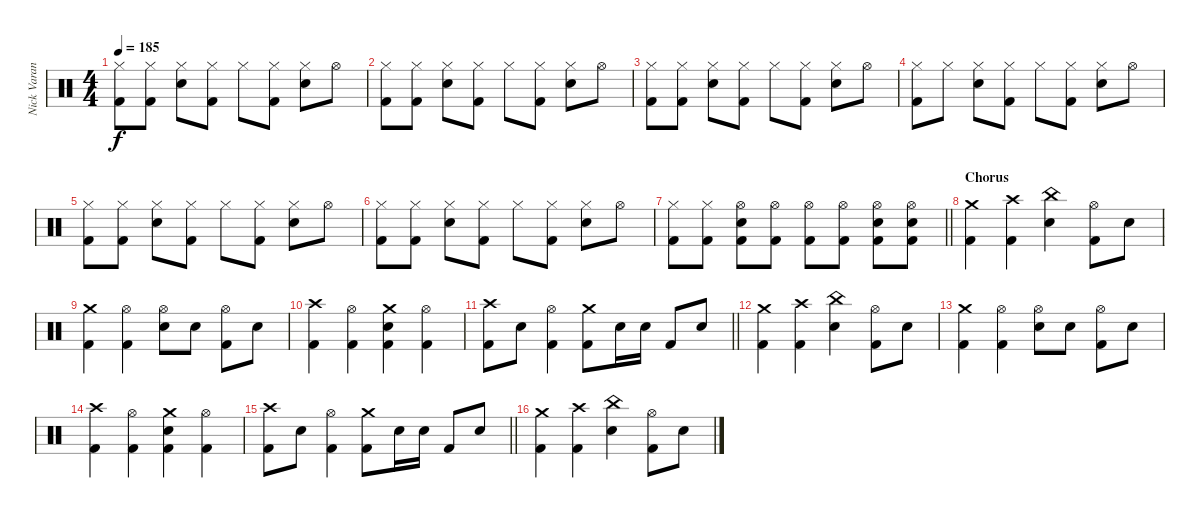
\track ("Nick Varano (Drums)" "Nick Varan") {instrument percussion}
\staff {score}
\articulation defaults
\ts (4 4)
\tempo 185
\clef neutral
\ks c
("Hi-Hat (closed)" "Kick (hit) 2").8{dy f} ("Hi-Hat (closed)" "Kick (hit) 2").8 ("Hi-Hat (closed)" "Electric Snare (hit)").8 ("Hi-Hat (closed)" "Kick (hit) 2").8 "Hi-Hat (closed)".8 ("Hi-Hat (closed)" "Kick (hit) 2").8 ("Hi-Hat (closed)" "Electric Snare (hit)").8 "Hi-Hat (open)".8 |
("Hi-Hat (closed)" "Kick (hit) 2").8 ("Hi-Hat (closed)" "Kick (hit) 2").8 ("Hi-Hat (closed)" "Electric Snare (hit)").8 ("Hi-Hat (closed)" "Kick (hit) 2").8 "Hi-Hat (closed)".8 ("Hi-Hat (closed)" "Kick (hit) 2").8 ("Hi-Hat (closed)" "Electric Snare (hit)").8 "Hi-Hat (open)".8 |
("Hi-Hat (closed)" "Kick (hit) 2").8 ("Hi-Hat (closed)" "Kick (hit) 2").8 ("Hi-Hat (closed)" "Electric Snare (hit)").8 ("Hi-Hat (closed)" "Kick (hit) 2").8 "Hi-Hat (closed)".8 ("Hi-Hat (closed)" "Kick (hit) 2").8 ("Hi-Hat (closed)" "Electric Snare (hit)").8 "Hi-Hat (open)".8 |
("Hi-Hat (closed)" "Kick (hit) 2").8 "Hi-Hat (closed)".8 ("Hi-Hat (closed)" "Electric Snare (hit)").8 ("Hi-Hat (closed)" "Kick (hit) 2").8 "Hi-Hat (closed)".8 ("Hi-Hat (closed)" "Kick (hit) 2").8 ("Hi-Hat (closed)" "Electric Snare (hit)").8 "Hi-Hat (open)".8 |
("Hi-Hat (closed)" "Kick (hit) 2").8 ("Hi-Hat (closed)" "Kick (hit) 2").8 ("Hi-Hat (closed)" "Electric Snare (hit)").8 ("Hi-Hat (closed)" "Kick (hit) 2").8 "Hi-Hat (closed)".8 ("Hi-Hat (closed)" "Kick (hit) 2").8 ("Hi-Hat (closed)" "Electric Snare (hit)").8 "Hi-Hat (open)".8 |
("Hi-Hat (closed)" "Kick (hit) 2").8 ("Hi-Hat (closed)" "Kick (hit) 2").8 ("Hi-Hat (closed)" "Electric Snare (hit)").8 ("Hi-Hat (closed)" "Kick (hit) 2").8 "Hi-Hat (closed)".8 ("Hi-Hat (closed)" "Kick (hit) 2").8 ("Hi-Hat (closed)" "Electric Snare (hit)").8 "Hi-Hat (open)".8 |
\barLineRight lightlight
("Hi-Hat (closed)" "Kick (hit) 2").8 ("Hi-Hat (closed)" "Kick (hit) 2").8 ("Hi-Hat (open)" "Electric Snare (hit)" "Kick (hit) 2").8 ("Hi-Hat (open)" "Kick (hit) 2").8 ("Hi-Hat (open)" "Kick (hit) 2").8 ("Hi-Hat (open)" "Kick (hit) 2").8 ("Hi-Hat (open)" "Electric Snare (hit)" "Kick (hit) 2").8 ("Hi-Hat (open)" "Electric Snare (hit)" "Kick (hit) 2").8 |
\section ("" "Chorus")
("Crash medium (hit)" "Kick (hit) 2").4 ("Crash high (hit)" "Kick (hit) 2").4 ("China (hit)" "Electric Snare (hit)").4 ("Hi-Hat (open)" "Kick (hit) 2").8 "Electric Snare (hit)".8 |
("Crash medium (hit)" "Kick (hit) 2").4 ("Hi-Hat (open)" "Kick (hit) 2").4 ("Hi-Hat (open)" "Electric Snare (hit)").8 "Electric Snare (hit)".8 ("Hi-Hat (open)" "Kick (hit) 2").8 "Electric Snare (hit)".8 |
("Crash high (hit)" "Kick (hit) 2").4 ("Hi-Hat (open)" "Kick (hit) 2").4 ("Crash medium (hit)" "Electric Snare (hit)" "Kick (hit) 2").4 ("Hi-Hat (open)" "Kick (hit) 2").4 |
\barLineRight lightlight
("Crash high (hit)" "Kick (hit) 2").8 "Electric Snare (hit)".8 ("Hi-Hat (open)" "Kick (hit) 2").4 ("Crash medium (hit)" "Kick (hit) 2").8 "Electric Snare (hit)".16 "Electric Snare (hit)".16 "Kick (hit) 2".8 "Electric Snare (hit)".8 |
("Crash medium (hit)" "Kick (hit) 2").4 ("Crash high (hit)" "Kick (hit) 2").4 ("China (hit)" "Electric Snare (hit)").4 ("Hi-Hat (open)" "Kick (hit) 2").8 "Electric Snare (hit)".8 |
("Crash medium (hit)" "Kick (hit) 2").4 ("Hi-Hat (open)" "Kick (hit) 2").4 ("Hi-Hat (open)" "Electric Snare (hit)").8 "Electric Snare (hit)".8 ("Hi-Hat (open)" "Kick (hit) 2").8 "Electric Snare (hit)".8 |
("Crash high (hit)" "Kick (hit) 2").4 ("Hi-Hat (open)" "Kick (hit) 2").4 ("Crash medium (hit)" "Electric Snare (hit)" "Kick (hit) 2").4 ("Hi-Hat (open)" "Kick (hit) 2").4 |
\barLineRight lightlight
("Crash high (hit)" "Kick (hit) 2").8 "Electric Snare (hit)".8 ("Hi-Hat (open)" "Kick (hit) 2").4 ("Crash medium (hit)" "Kick (hit) 2").8 "Electric Snare (hit)".16 "Electric Snare (hit)".16 "Kick (hit) 2".8 "Electric Snare (hit)".8 |
("Crash medium (hit)" "Kick (hit) 2").4 ("Crash high (hit)" "Kick (hit) 2").4 ("China (hit)" "Electric Snare (hit)").4 ("Hi-Hat (open)" "Kick (hit) 2").8 "Electric Snare (hit)".8
